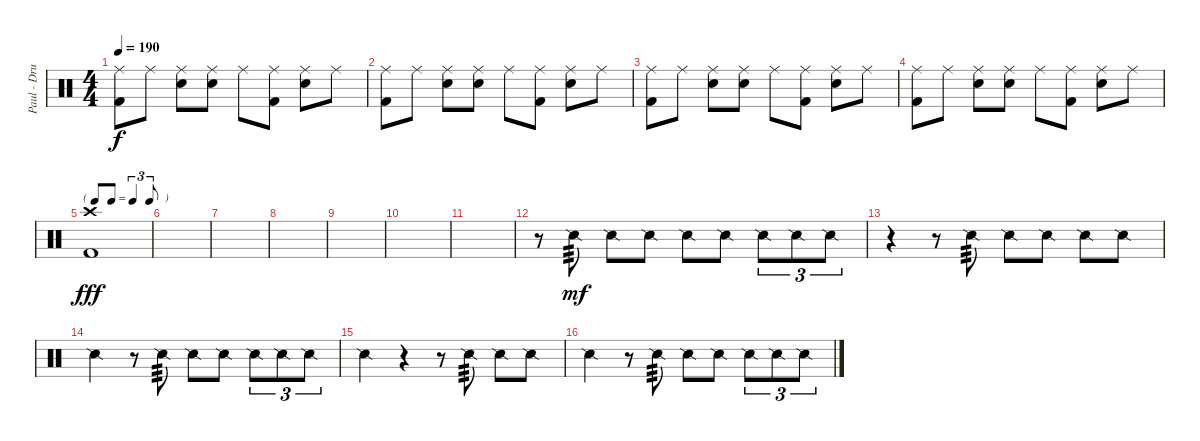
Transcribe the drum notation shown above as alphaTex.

\track ("Paul - Drums" "Paul - Dru") {instrument percussion}
\staff {score}
\articulation defaults
\ts (4 4)
\tempo 190
\clef neutral
\ks c
("Ride (middle)" "Kick (hit) 2").8{dy f} "Ride (middle)".8 ("Ride (middle)" "Electric Snare (hit)").8 ("Ride (middle)" "Electric Snare (hit)").8 "Ride (middle)".8 ("Ride (middle)" "Kick (hit) 2").8 ("Ride (middle)" "Electric Snare (hit)").8 "Ride (middle)".8 |
("Ride (middle)" "Kick (hit) 2").8 "Ride (middle)".8 ("Ride (middle)" "Electric Snare (hit)").8 ("Ride (middle)" "Electric Snare (hit)").8 "Ride (middle)".8 ("Ride (middle)" "Kick (hit) 2").8 ("Ride (middle)" "Electric Snare (hit)").8 "Ride (middle)".8 |
("Ride (middle)" "Kick (hit) 2").8 "Ride (middle)".8 ("Ride (middle)" "Electric Snare (hit)").8 ("Ride (middle)" "Electric Snare (hit)").8 "Ride (middle)".8 ("Ride (middle)" "Kick (hit) 2").8 ("Ride (middle)" "Electric Snare (hit)").8 "Ride (middle)".8 |
("Ride (middle)" "Kick (hit) 2").8 "Ride (middle)".8 ("Ride (middle)" "Electric Snare (hit)").8 ("Ride (middle)" "Electric Snare (hit)").8 "Ride (middle)".8 ("Ride (middle)" "Kick (hit) 2").8 ("Ride (middle)" "Electric Snare (hit)").8 "Ride (middle)".8 |
\tf triplet8th
("Crash high (hit)" "Kick (hit) 2").1{dy fff} |
|
|
|
|
|
|
r.8 "Snare (side stick) 2".8{tp 3 dy mf} "Snare (side stick) 2".8 "Snare (side stick) 2".8 "Snare (side stick) 2".8 "Snare (side stick) 2".8 "Snare (side stick) 2".8{tu (3 2)} "Snare (side stick) 2".8{tu (3 2)} "Snare (side stick) 2".8{tu (3 2)} |
r.4 r.8 "Snare (side stick) 2".8{tp 3} "Snare (side stick) 2".8 "Snare (side stick) 2".8 "Snare (side stick) 2".8 "Snare (side stick) 2".8 |
"Snare (side stick) 2".4 r.8 "Snare (side stick) 2".8{tp 3} "Snare (side stick) 2".8 "Snare (side stick) 2".8 "Snare (side stick) 2".8{tu (3 2)} "Snare (side stick) 2".8{tu (3 2)} "Snare (side stick) 2".8{tu (3 2)} |
"Snare (side stick) 2".4 r.4 r.8 "Snare (side stick) 2".8{tp 3} "Snare (side stick) 2".8 "Snare (side stick) 2".8 |
"Snare (side stick) 2".4 r.8 "Snare (side stick) 2".8{tp 3} "Snare (side stick) 2".8 "Snare (side stick) 2".8 "Snare (side stick) 2".8{tu (3 2)} "Snare (side stick) 2".8{tu (3 2)} "Snare (side stick) 2".8{tu (3 2)}
